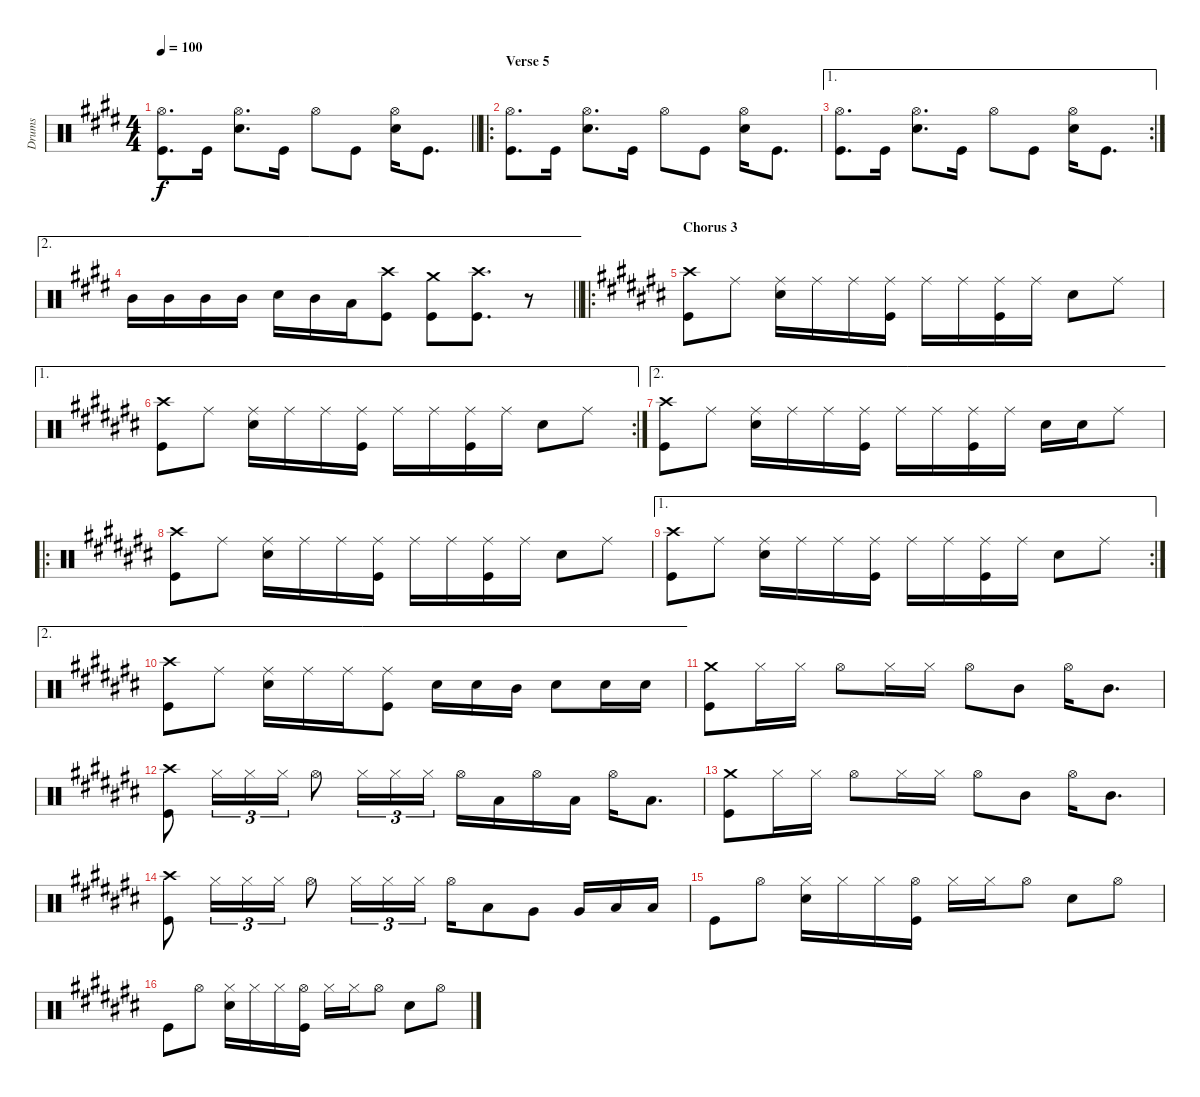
\track ("Drums" "Drums") {instrument percussion}
\staff {score}
\articulation defaults
\ts (4 4)
\tempo 100
\clef neutral
\barLineRight lightlight
\ks e
("Hi-Hat (open)" "Kick (hit)").8{d dy f} "Kick (hit)".16 ("Hi-Hat (open)" "Snare (hit) 2").8{d} "Kick (hit)".16 "Hi-Hat (open)".8 "Kick (hit)".8 ("Hi-Hat (open)" "Snare (hit) 2").16 "Kick (hit)".8{d} |
\ro
\section ("" "Verse 5")
("Hi-Hat (open)" "Kick (hit)").8{d} "Kick (hit)".16 ("Hi-Hat (open)" "Snare (hit) 2").8{d} "Kick (hit)".16 "Hi-Hat (open)".8 "Kick (hit)".8 ("Hi-Hat (open)" "Snare (hit) 2").16 "Kick (hit)".8{d} |
\ae 1
\rc 2
("Hi-Hat (open)" "Kick (hit)").8{d} "Kick (hit)".16 ("Hi-Hat (open)" "Snare (hit) 2").8{d} "Kick (hit)".16 "Hi-Hat (open)".8 "Kick (hit)".8 ("Hi-Hat (open)" "Snare (hit) 2").16 "Kick (hit)".8{d} |
\ae 2
\barLineRight lightlight "Mid Tom (hit)".16 "Mid Tom (hit)".16 "Mid Tom (hit)".16 "Mid Tom (hit)".16 "Snare (hit) 2".16 "Mid Tom (hit)".16 "Low Tom (hit)".16
("Crash high (hit)" "Kick (hit)").8 ("Crash medium (hit)" "Kick (hit)").8 ("Crash high (hit)" "Kick (hit)").8{d} r.8 |
\ro
\section ("" "Chorus 3")
\ks c#
("Crash high (hit)" "Kick (hit)").8 "Ride (middle)".8 ("Ride (middle)" "Snare (hit) 2").16 "Ride (middle)".16 "Ride (middle)".16 ("Ride (middle)" "Kick (hit)").16 "Ride (middle)".16 "Ride (middle)".16 ("Ride (middle)" "Kick (hit)").16 "Ride (middle)".16 "Snare (hit) 2".8 "Ride (middle)".8 |
\ae 1
\rc 2
("Crash high (hit)" "Kick (hit)").8 "Ride (middle)".8 ("Ride (middle)" "Snare (hit) 2").16 "Ride (middle)".16 "Ride (middle)".16 ("Ride (middle)" "Kick (hit)").16 "Ride (middle)".16 "Ride (middle)".16 ("Ride (middle)" "Kick (hit)").16 "Ride (middle)".16 "Snare (hit) 2".8 "Ride (middle)".8 |
\ae 2
("Crash high (hit)" "Kick (hit)").8 "Ride (middle)".8 ("Ride (middle)" "Snare (hit) 2").16 "Ride (middle)".16 "Ride (middle)".16 ("Ride (middle)" "Kick (hit)").16 "Ride (middle)".16 "Ride (middle)".16 ("Ride (middle)" "Kick (hit)").16 "Ride (middle)".16 "Snare (hit) 2".16 "Snare (hit) 2".16 "Ride (middle)".8 |
\ro
("Crash high (hit)" "Kick (hit)").8 "Ride (middle)".8 ("Ride (middle)" "Snare (hit) 2").16 "Ride (middle)".16 "Ride (middle)".16 ("Ride (middle)" "Kick (hit)").16 "Ride (middle)".16 "Ride (middle)".16 ("Ride (middle)" "Kick (hit)").16 "Ride (middle)".16 "Snare (hit) 2".8 "Ride (middle)".8 |
\ae 1
\rc 2
("Crash high (hit)" "Kick (hit)").8 "Ride (middle)".8 ("Ride (middle)" "Snare (hit) 2").16 "Ride (middle)".16 "Ride (middle)".16 ("Ride (middle)" "Kick (hit)").16 "Ride (middle)".16 "Ride (middle)".16 ("Ride (middle)" "Kick (hit)").16 "Ride (middle)".16 "Snare (hit) 2".8 "Ride (middle)".8 |
\ae 2
("Crash high (hit)" "Kick (hit)").8 "Ride (middle)".8 ("Ride (middle)" "Snare (hit) 2").16 "Ride (middle)".16 "Ride (middle)".16 ("Ride (middle)" "Kick (hit)").8 "Snare (hit) 2".16 "Snare (hit) 2".16 "Mid Tom (hit)".16 "Snare (hit) 2".8 "Snare (hit) 2".16 "Snare (hit) 2".16 |
("Crash medium (hit)" "Kick (hit)").8 "Hi-Hat (closed)".16 "Hi-Hat (closed)".16 "Hi-Hat (open)".8 "Hi-Hat (closed)".16 "Hi-Hat (closed)".16 "Hi-Hat (open)".8 "Mid Tom (hit)".8 "Hi-Hat (open)".16 "Mid Tom (hit)".8{d} |
("Crash high (hit)" "Kick (hit)").8 "Hi-Hat (closed)".16{tu (3 2)} "Hi-Hat (closed)".16{tu (3 2)} "Hi-Hat (closed)".16{tu (3 2)} "Hi-Hat (open)".8 "Hi-Hat (closed)".16{tu (3 2)} "Hi-Hat (closed)".16{tu (3 2)} "Hi-Hat (closed)".16{tu (3 2)} "Hi-Hat (open)".16 "Low Tom (hit)".16 "Hi-Hat (open)".16 "Low Tom (hit)".16 "Hi-Hat (open)".16 "Low Tom (hit)".8{d} |
("Crash medium (hit)" "Kick (hit)").8 "Hi-Hat (closed)".16 "Hi-Hat (closed)".16 "Hi-Hat (open)".8 "Hi-Hat (closed)".16 "Hi-Hat (closed)".16 "Hi-Hat (open)".8 "Mid Tom (hit)".8 "Hi-Hat (open)".16 "Mid Tom (hit)".8{d} |
("Crash high (hit)" "Kick (hit)").8 "Hi-Hat (closed)".16{tu (3 2)} "Hi-Hat (closed)".16{tu (3 2)} "Hi-Hat (closed)".16{tu (3 2)} "Hi-Hat (open)".8 "Hi-Hat (closed)".16{tu (3 2)} "Hi-Hat (closed)".16{tu (3 2)} "Hi-Hat (closed)".16{tu (3 2)} "Hi-Hat (open)".16 "Low Tom (hit)".8 "Very Low Tom (hit)".8 "Very Low Tom (hit)".16 "Low Floor Tom (hit)".16 "Low Floor Tom (hit)".16 |
"Kick (hit)".8 "Hi-Hat (open)".8 ("Hi-Hat (closed)" "Snare (hit) 2").16 "Hi-Hat (closed)".16 "Hi-Hat (closed)".16 ("Hi-Hat (open)" "Kick (hit)").16 "Hi-Hat (closed)".16 "Hi-Hat (closed)".16 "Hi-Hat (open)".8 "Snare (hit) 2".8 "Hi-Hat (open)".8 |
"Kick (hit)".8 "Hi-Hat (open)".8 ("Hi-Hat (closed)" "Snare (hit) 2").16 "Hi-Hat (closed)".16 "Hi-Hat (closed)".16 ("Hi-Hat (open)" "Kick (hit)").16 "Hi-Hat (closed)".16 "Hi-Hat (closed)".16 "Hi-Hat (open)".8 "Snare (hit) 2".8 "Hi-Hat (open)".8
